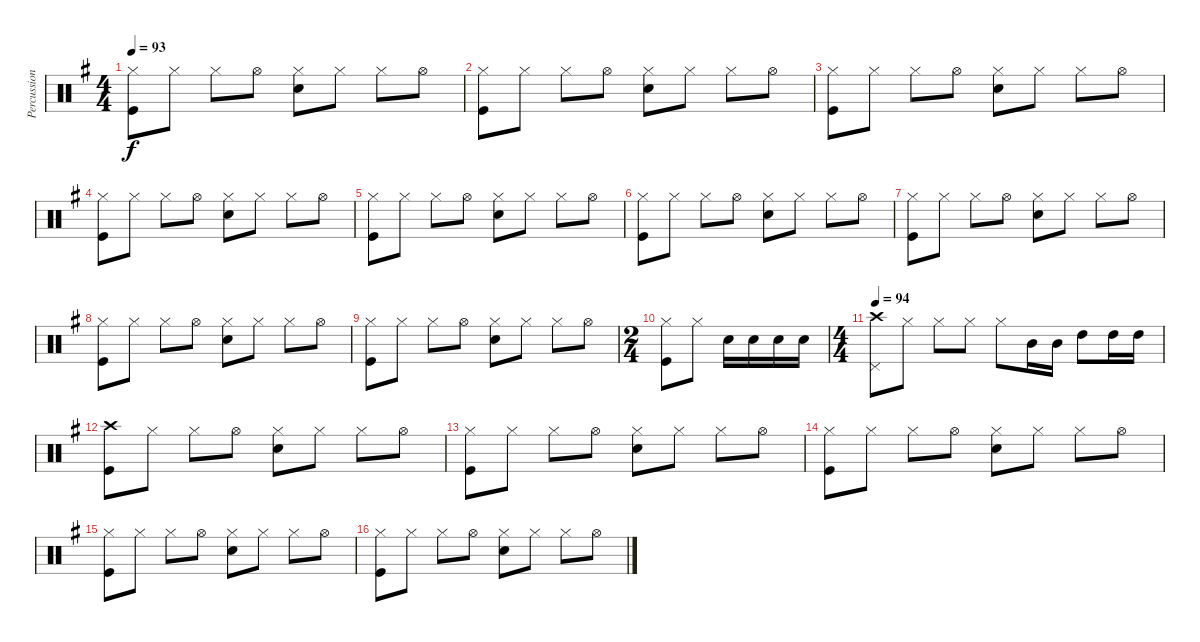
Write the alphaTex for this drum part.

\track ("Percussions" "Percussion") {instrument percussion}
\staff {score}
\articulation defaults
\ts (4 4)
\tempo 93
\clef neutral
\ks g
("Kick (hit)" "Hi-Hat (closed)").8{dy f} "Hi-Hat (closed)".8 "Hi-Hat (closed)".8 "Hi-Hat (open)".8 ("Hi-Hat (closed)" "Snare (hit) 2").8 "Hi-Hat (closed)".8 "Hi-Hat (closed)".8 "Hi-Hat (open)".8 |
("Kick (hit)" "Hi-Hat (closed)").8 "Hi-Hat (closed)".8 "Hi-Hat (closed)".8 "Hi-Hat (open)".8 ("Hi-Hat (closed)" "Snare (hit) 2").8 "Hi-Hat (closed)".8 "Hi-Hat (closed)".8 "Hi-Hat (open)".8 |
("Kick (hit)" "Hi-Hat (closed)").8 "Hi-Hat (closed)".8 "Hi-Hat (closed)".8 "Hi-Hat (open)".8 ("Hi-Hat (closed)" "Snare (hit) 2").8 "Hi-Hat (closed)".8 "Hi-Hat (closed)".8 "Hi-Hat (open)".8 |
("Kick (hit)" "Hi-Hat (closed)").8 "Hi-Hat (closed)".8 "Hi-Hat (closed)".8 "Hi-Hat (open)".8 ("Hi-Hat (closed)" "Snare (hit) 2").8 "Hi-Hat (closed)".8 "Hi-Hat (closed)".8 "Hi-Hat (open)".8 |
("Kick (hit)" "Hi-Hat (closed)").8 "Hi-Hat (closed)".8 "Hi-Hat (closed)".8 "Hi-Hat (open)".8 ("Hi-Hat (closed)" "Snare (hit) 2").8 "Hi-Hat (closed)".8 "Hi-Hat (closed)".8 "Hi-Hat (open)".8 |
("Kick (hit)" "Hi-Hat (closed)").8 "Hi-Hat (closed)".8 "Hi-Hat (closed)".8 "Hi-Hat (open)".8 ("Hi-Hat (closed)" "Snare (hit) 2").8 "Hi-Hat (closed)".8 "Hi-Hat (closed)".8 "Hi-Hat (open)".8 |
("Kick (hit)" "Hi-Hat (closed)").8 "Hi-Hat (closed)".8 "Hi-Hat (closed)".8 "Hi-Hat (open)".8 ("Hi-Hat (closed)" "Snare (hit) 2").8 "Hi-Hat (closed)".8 "Hi-Hat (closed)".8 "Hi-Hat (open)".8 |
("Kick (hit)" "Hi-Hat (closed)").8 "Hi-Hat (closed)".8 "Hi-Hat (closed)".8 "Hi-Hat (open)".8 ("Hi-Hat (closed)" "Snare (hit) 2").8 "Hi-Hat (closed)".8 "Hi-Hat (closed)".8 "Hi-Hat (open)".8 |
("Kick (hit)" "Hi-Hat (closed)").8 "Hi-Hat (closed)".8 "Hi-Hat (closed)".8 "Hi-Hat (open)".8 ("Hi-Hat (closed)" "Snare (hit) 2").8 "Hi-Hat (closed)".8 "Hi-Hat (closed)".8 "Hi-Hat (open)".8 |
\ts (2 4)
("Hi-Hat (closed)" "Kick (hit)").8 "Hi-Hat (closed)".8 "Snare (hit) 2".16{volume 16} "Snare (hit) 2".16{volume 16} "Snare (hit) 2".16{volume 16} "Snare (hit) 2".16{volume 16} |
\ts (4 4)
\tempo 94
("Pedal Hi-Hat (hit)" "Crash high (hit)").8{volume 16} "Hi-Hat (closed)".8 "Hi-Hat (closed)".8 "Hi-Hat (closed)".8 "Hi-Hat (closed)".8 "Mid Tom (hit)".16{volume 16} "Mid Tom (hit)".16{volume 16} "High Tom (hit)".8{volume 16} "High Tom (hit)".16{volume 16} "High Tom (hit)".16{volume 16} |
("Kick (hit)" "Crash high (hit)").8 "Hi-Hat (closed)".8 "Hi-Hat (closed)".8 "Hi-Hat (open)".8 ("Hi-Hat (closed)" "Snare (hit) 2").8 "Hi-Hat (closed)".8 "Hi-Hat (closed)".8 "Hi-Hat (open)".8 |
("Kick (hit)" "Hi-Hat (closed)").8 "Hi-Hat (closed)".8 "Hi-Hat (closed)".8 "Hi-Hat (open)".8 ("Hi-Hat (closed)" "Snare (hit) 2").8 "Hi-Hat (closed)".8 "Hi-Hat (closed)".8 "Hi-Hat (open)".8 |
("Kick (hit)" "Hi-Hat (closed)").8 "Hi-Hat (closed)".8 "Hi-Hat (closed)".8 "Hi-Hat (open)".8 ("Hi-Hat (closed)" "Snare (hit) 2").8 "Hi-Hat (closed)".8 "Hi-Hat (closed)".8 "Hi-Hat (open)".8 |
("Kick (hit)" "Hi-Hat (closed)").8 "Hi-Hat (closed)".8 "Hi-Hat (closed)".8 "Hi-Hat (open)".8 ("Hi-Hat (closed)" "Snare (hit) 2").8 "Hi-Hat (closed)".8 "Hi-Hat (closed)".8 "Hi-Hat (open)".8 |
("Kick (hit)" "Hi-Hat (closed)").8 "Hi-Hat (closed)".8 "Hi-Hat (closed)".8 "Hi-Hat (open)".8 ("Hi-Hat (closed)" "Snare (hit) 2").8 "Hi-Hat (closed)".8 "Hi-Hat (closed)".8 "Hi-Hat (open)".8
